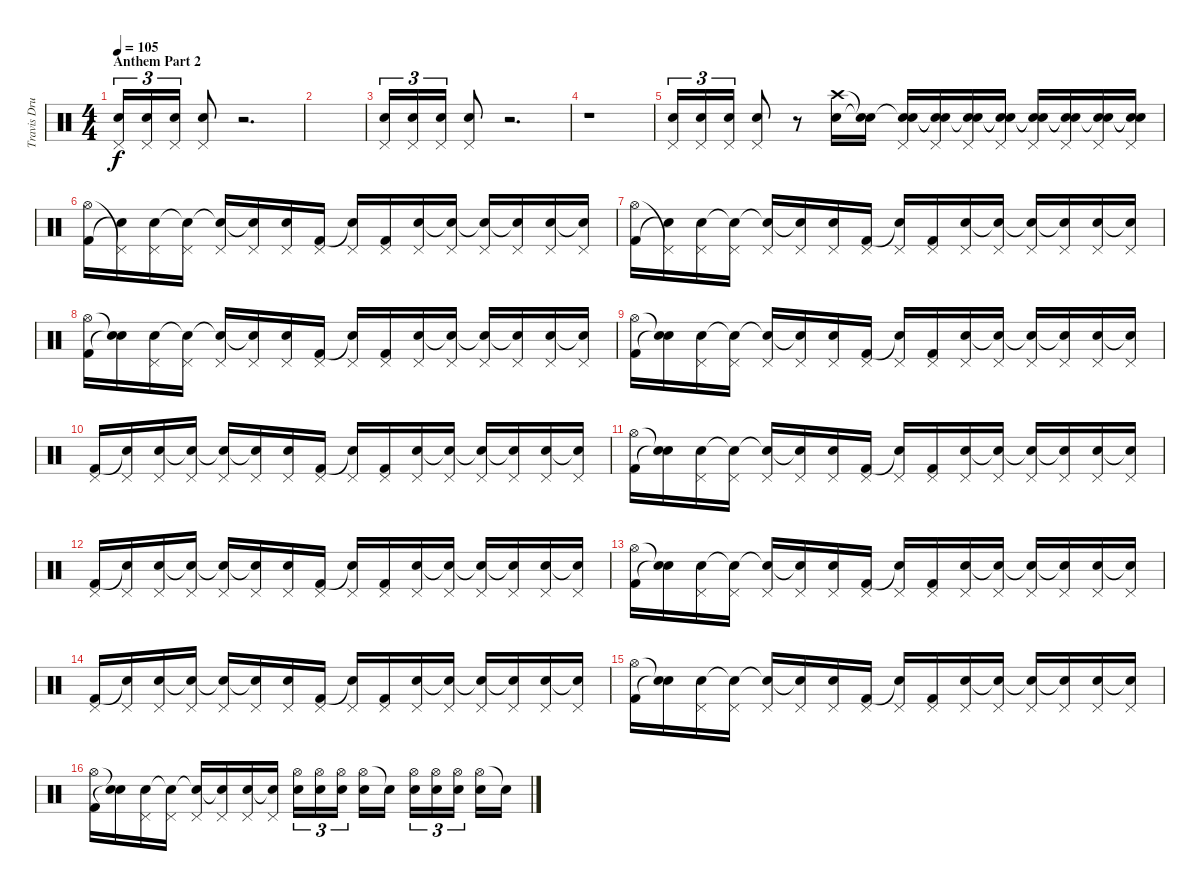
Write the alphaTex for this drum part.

\track ("Travis Drums" "Travis Dru") {instrument percussion}
\staff {score}
\articulation defaults
\ts (4 4)
\section ("" "Anthem Part 2")
\tempo 105
\clef neutral
\ks c
("Pedal Hi-Hat (hit)" "Electric Snare (hit)").16{tu (3 2) dy f} ("Pedal Hi-Hat (hit)" "Electric Snare (hit)").16{tu (3 2)} ("Pedal Hi-Hat (hit)" "Electric Snare (hit)").16{tu (3 2)} ("Pedal Hi-Hat (hit)" "Electric Snare (hit)").8 r.2{d} |
|
("Pedal Hi-Hat (hit)" "Electric Snare (hit)").16{tu (3 2)} ("Pedal Hi-Hat (hit)" "Electric Snare (hit)").16{tu (3 2)} ("Pedal Hi-Hat (hit)" "Electric Snare (hit)").16{tu (3 2)} ("Pedal Hi-Hat (hit)" "Electric Snare (hit)").8 r.2{d} |
r.1 |
("Pedal Hi-Hat (hit)" "Electric Snare (hit)").16{tu (3 2)} ("Pedal Hi-Hat (hit)" "Electric Snare (hit)").16{tu (3 2)} ("Pedal Hi-Hat (hit)" "Electric Snare (hit)").16{tu (3 2)} ("Pedal Hi-Hat (hit)" "Electric Snare (hit)").8 r.8 ("Crash high (hit)" "Electric Snare (hit)").16 ("Snare (hit)"{t} "Snare (hit)"{t}).16 ("Snare (hit)"{t} "Pedal Hi-Hat (hit)" "Snare (hit)").16 ("Snare (hit)"{t} "Pedal Hi-Hat (hit)" "Snare (hit)"{t}).16 ("Snare (hit)"{t} "Pedal Hi-Hat (hit)" "Electric Snare (hit)").16 ("Snare (hit)"{t} "Pedal Hi-Hat (hit)" "Snare (hit)"{t}).16 ("Snare (hit)"{t} "Pedal Hi-Hat (hit)" "Snare (hit)"{t}).16 ("Snare (hit)"{t} "Pedal Hi-Hat (hit)" "Snare (hit)"{t}).16 ("Snare (hit)"{t} "Pedal Hi-Hat (hit)" "Electric Snare (hit)").16 ("Snare (hit)"{t} "Pedal Hi-Hat (hit)" "Snare (hit)"{t}).16 |
("Hi-Hat (open)" "Kick (hit) 2").16 ("Pedal Hi-Hat (hit)"{t} "Snare (hit)"{t}).16 ("Pedal Hi-Hat (hit)" "Electric Snare (hit)").16 ("Pedal Hi-Hat (hit)" "Snare (hit)"{t}).16 ("Pedal Hi-Hat (hit)" "Snare (hit)"{t}).16 ("Pedal Hi-Hat (hit)" "Snare (hit)"{t}).16 ("Pedal Hi-Hat (hit)" "Electric Snare (hit)").16 ("Pedal Hi-Hat (hit)" "Kick (hit) 2").16 ("Pedal Hi-Hat (hit)" "Snare (hit)"{t}).16 ("Pedal Hi-Hat (hit)" "Kick (hit) 2").16 ("Pedal Hi-Hat (hit)" "Electric Snare (hit)").16 ("Pedal Hi-Hat (hit)" "Snare (hit)"{t}).16 ("Pedal Hi-Hat (hit)" "Snare (hit)"{t}).16 ("Pedal Hi-Hat (hit)" "Snare (hit)"{t}).16 ("Pedal Hi-Hat (hit)" "Electric Snare (hit)").16 ("Pedal Hi-Hat (hit)" "Snare (hit)"{t}).16 |
("Hi-Hat (open)" "Kick (hit) 2").16 ("Pedal Hi-Hat (hit)"{t} "Snare (hit)"{t}).16 ("Pedal Hi-Hat (hit)" "Electric Snare (hit)").16 ("Pedal Hi-Hat (hit)" "Snare (hit)"{t}).16 ("Pedal Hi-Hat (hit)" "Snare (hit)"{t}).16 ("Pedal Hi-Hat (hit)" "Snare (hit)"{t}).16 ("Pedal Hi-Hat (hit)" "Electric Snare (hit)").16 ("Pedal Hi-Hat (hit)" "Kick (hit) 2").16 ("Pedal Hi-Hat (hit)" "Snare (hit)"{t}).16 ("Pedal Hi-Hat (hit)" "Kick (hit) 2").16 ("Pedal Hi-Hat (hit)" "Electric Snare (hit)").16 ("Pedal Hi-Hat (hit)" "Snare (hit)"{t}).16 ("Pedal Hi-Hat (hit)" "Snare (hit)"{t}).16 ("Pedal Hi-Hat (hit)" "Snare (hit)"{t}).16 ("Pedal Hi-Hat (hit)" "Electric Snare (hit)").16 ("Pedal Hi-Hat (hit)" "Snare (hit)"{t}).16 |
("Hi-Hat (open)" "Kick (hit) 2").16 ("Snare (hit)"{t} "Snare (hit)"{t}).16 ("Pedal Hi-Hat (hit)" "Electric Snare (hit)").16 ("Pedal Hi-Hat (hit)" "Snare (hit)"{t}).16 ("Pedal Hi-Hat (hit)" "Snare (hit)"{t}).16 ("Pedal Hi-Hat (hit)" "Electric Snare (hit)"{t}).16 ("Pedal Hi-Hat (hit)" "Electric Snare (hit)").16 ("Pedal Hi-Hat (hit)" "Kick (hit) 2").16 ("Pedal Hi-Hat (hit)" "Snare (hit)"{t}).16 ("Pedal Hi-Hat (hit)" "Kick (hit) 2").16 ("Pedal Hi-Hat (hit)" "Electric Snare (hit)").16 ("Pedal Hi-Hat (hit)" "Snare (hit)"{t}).16 ("Pedal Hi-Hat (hit)" "Snare (hit)"{t}).16 ("Pedal Hi-Hat (hit)" "Snare (hit)"{t}).16 ("Pedal Hi-Hat (hit)" "Electric Snare (hit)").16 ("Pedal Hi-Hat (hit)" "Snare (hit)"{t}).16 |
("Hi-Hat (open)" "Kick (hit) 2").16 ("Snare (hit)"{t} "Snare (hit)"{t}).16 ("Pedal Hi-Hat (hit)" "Electric Snare (hit)").16 ("Pedal Hi-Hat (hit)" "Snare (hit)"{t}).16 ("Pedal Hi-Hat (hit)" "Snare (hit)"{t}).16 ("Pedal Hi-Hat (hit)" "Snare (hit)"{t}).16 ("Pedal Hi-Hat (hit)" "Electric Snare (hit)").16 ("Pedal Hi-Hat (hit)" "Kick (hit) 2").16 ("Pedal Hi-Hat (hit)" "Snare (hit)"{t}).16 ("Pedal Hi-Hat (hit)" "Kick (hit) 2").16 ("Pedal Hi-Hat (hit)" "Electric Snare (hit)").16 ("Pedal Hi-Hat (hit)" "Snare (hit)"{t}).16 ("Pedal Hi-Hat (hit)" "Snare (hit)"{t}).16 ("Pedal Hi-Hat (hit)" "Snare (hit)"{t}).16 ("Pedal Hi-Hat (hit)" "Electric Snare (hit)").16 ("Pedal Hi-Hat (hit)" "Snare (hit)"{t}).16 |
("Pedal Hi-Hat (hit)" "Kick (hit) 2").16 ("Pedal Hi-Hat (hit)" "Snare (hit)"{t}).16 ("Pedal Hi-Hat (hit)" "Electric Snare (hit)").16 ("Pedal Hi-Hat (hit)" "Snare (hit)"{t}).16 ("Pedal Hi-Hat (hit)" "Snare (hit)"{t}).16 ("Pedal Hi-Hat (hit)" "Snare (hit)"{t}).16 ("Pedal Hi-Hat (hit)" "Electric Snare (hit)").16 ("Pedal Hi-Hat (hit)" "Kick (hit) 2").16 ("Pedal Hi-Hat (hit)" "Snare (hit)"{t}).16 ("Pedal Hi-Hat (hit)" "Kick (hit) 2").16 ("Pedal Hi-Hat (hit)" "Electric Snare (hit)").16 ("Pedal Hi-Hat (hit)" "Snare (hit)"{t}).16 ("Pedal Hi-Hat (hit)" "Snare (hit)"{t}).16 ("Pedal Hi-Hat (hit)" "Snare (hit)"{t}).16 ("Pedal Hi-Hat (hit)" "Electric Snare (hit)").16 ("Pedal Hi-Hat (hit)" "Snare (hit)"{t}).16 |
("Hi-Hat (open)" "Kick (hit) 2").16 ("Snare (hit)"{t} "Snare (hit)"{t}).16 ("Pedal Hi-Hat (hit)" "Electric Snare (hit)").16 ("Pedal Hi-Hat (hit)" "Snare (hit)"{t}).16 ("Pedal Hi-Hat (hit)" "Snare (hit)"{t}).16 ("Pedal Hi-Hat (hit)" "Snare (hit)"{t}).16 ("Pedal Hi-Hat (hit)" "Electric Snare (hit)").16 ("Pedal Hi-Hat (hit)" "Kick (hit) 2").16 ("Pedal Hi-Hat (hit)" "Snare (hit)"{t}).16 ("Pedal Hi-Hat (hit)" "Kick (hit) 2").16 ("Pedal Hi-Hat (hit)" "Electric Snare (hit)").16 ("Pedal Hi-Hat (hit)" "Snare (hit)"{t}).16 ("Pedal Hi-Hat (hit)" "Snare (hit)"{t}).16 ("Pedal Hi-Hat (hit)" "Snare (hit)"{t}).16 ("Pedal Hi-Hat (hit)" "Electric Snare (hit)").16 ("Pedal Hi-Hat (hit)" "Snare (hit)"{t}).16 |
("Pedal Hi-Hat (hit)" "Kick (hit) 2").16 ("Pedal Hi-Hat (hit)" "Snare (hit)"{t}).16 ("Pedal Hi-Hat (hit)" "Electric Snare (hit)").16 ("Pedal Hi-Hat (hit)" "Snare (hit)"{t}).16 ("Pedal Hi-Hat (hit)" "Snare (hit)"{t}).16 ("Pedal Hi-Hat (hit)" "Snare (hit)"{t}).16 ("Pedal Hi-Hat (hit)" "Electric Snare (hit)").16 ("Pedal Hi-Hat (hit)" "Kick (hit) 2").16 ("Pedal Hi-Hat (hit)" "Snare (hit)"{t}).16 ("Pedal Hi-Hat (hit)" "Kick (hit) 2").16 ("Pedal Hi-Hat (hit)" "Electric Snare (hit)").16 ("Pedal Hi-Hat (hit)" "Snare (hit)"{t}).16 ("Pedal Hi-Hat (hit)" "Snare (hit)"{t}).16 ("Pedal Hi-Hat (hit)" "Snare (hit)"{t}).16 ("Pedal Hi-Hat (hit)" "Electric Snare (hit)").16 ("Pedal Hi-Hat (hit)" "Snare (hit)"{t}).16 |
("Hi-Hat (open)" "Kick (hit) 2").16 ("Snare (hit)"{t} "Snare (hit)"{t}).16 ("Pedal Hi-Hat (hit)" "Electric Snare (hit)").16 ("Pedal Hi-Hat (hit)" "Snare (hit)"{t}).16 ("Pedal Hi-Hat (hit)" "Snare (hit)"{t}).16 ("Pedal Hi-Hat (hit)" "Snare (hit)"{t}).16 ("Pedal Hi-Hat (hit)" "Electric Snare (hit)").16 ("Pedal Hi-Hat (hit)" "Kick (hit) 2").16 ("Pedal Hi-Hat (hit)" "Snare (hit)"{t}).16 ("Pedal Hi-Hat (hit)" "Kick (hit) 2").16 ("Pedal Hi-Hat (hit)" "Electric Snare (hit)").16 ("Pedal Hi-Hat (hit)" "Snare (hit)"{t}).16 ("Pedal Hi-Hat (hit)" "Snare (hit)"{t}).16 ("Pedal Hi-Hat (hit)" "Snare (hit)"{t}).16 ("Pedal Hi-Hat (hit)" "Electric Snare (hit)").16 ("Pedal Hi-Hat (hit)" "Snare (hit)"{t}).16 |
("Pedal Hi-Hat (hit)" "Kick (hit) 2").16 ("Pedal Hi-Hat (hit)" "Snare (hit)"{t}).16 ("Pedal Hi-Hat (hit)" "Electric Snare (hit)").16 ("Pedal Hi-Hat (hit)" "Snare (hit)"{t}).16 ("Pedal Hi-Hat (hit)" "Snare (hit)"{t}).16 ("Pedal Hi-Hat (hit)" "Snare (hit)"{t}).16 ("Pedal Hi-Hat (hit)" "Electric Snare (hit)").16 ("Pedal Hi-Hat (hit)" "Kick (hit) 2").16 ("Pedal Hi-Hat (hit)" "Snare (hit)"{t}).16 ("Pedal Hi-Hat (hit)" "Kick (hit) 2").16 ("Pedal Hi-Hat (hit)" "Electric Snare (hit)").16 ("Pedal Hi-Hat (hit)" "Snare (hit)"{t}).16 ("Pedal Hi-Hat (hit)" "Snare (hit)"{t}).16 ("Pedal Hi-Hat (hit)" "Snare (hit)"{t}).16 ("Pedal Hi-Hat (hit)" "Electric Snare (hit)").16 ("Pedal Hi-Hat (hit)" "Snare (hit)"{t}).16 |
("Hi-Hat (open)" "Kick (hit) 2").16 ("Snare (hit)"{t} "Snare (hit)"{t}).16 ("Pedal Hi-Hat (hit)" "Electric Snare (hit)").16 ("Pedal Hi-Hat (hit)" "Snare (hit)"{t}).16 ("Pedal Hi-Hat (hit)" "Snare (hit)"{t}).16 ("Pedal Hi-Hat (hit)" "Electric Snare (hit)"{t}).16 ("Pedal Hi-Hat (hit)" "Electric Snare (hit)").16 ("Pedal Hi-Hat (hit)" "Kick (hit) 2").16 ("Pedal Hi-Hat (hit)" "Snare (hit)"{t}).16 ("Pedal Hi-Hat (hit)" "Kick (hit) 2").16 ("Pedal Hi-Hat (hit)" "Electric Snare (hit)").16 ("Pedal Hi-Hat (hit)" "Snare (hit)"{t}).16 ("Pedal Hi-Hat (hit)" "Snare (hit)"{t}).16 ("Pedal Hi-Hat (hit)" "Electric Snare (hit)"{t}).16 ("Pedal Hi-Hat (hit)" "Electric Snare (hit)").16 ("Pedal Hi-Hat (hit)" "Snare (hit)"{t}).16 |
("Hi-Hat (open)" "Kick (hit) 2").16 ("Snare (hit)"{t} "Snare (hit)"{t}).16 ("Pedal Hi-Hat (hit)" "Electric Snare (hit)").16 ("Pedal Hi-Hat (hit)" "Snare (hit)"{t}).16 ("Pedal Hi-Hat (hit)" "Snare (hit)"{t}).16 ("Pedal Hi-Hat (hit)" "Snare (hit)"{t}).16 ("Pedal Hi-Hat (hit)" "Electric Snare (hit)").16 ("Pedal Hi-Hat (hit)" "Snare (hit)"{t}).16 ("Hi-Hat (open)" "Electric Snare (hit)").16{tu (3 2)} ("Hi-Hat (open)" "Electric Snare (hit)").16{tu (3 2)} ("Hi-Hat (open)" "Electric Snare (hit)").16{tu (3 2)} ("Hi-Hat (open)" "Electric Snare (hit)").16 "Snare (hit)"{t}.16 ("Hi-Hat (open)" "Electric Snare (hit)").16{tu (3 2)} ("Hi-Hat (open)" "Electric Snare (hit)").16{tu (3 2)} ("Hi-Hat (open)" "Electric Snare (hit)").16{tu (3 2)} ("Hi-Hat (open)" "Electric Snare (hit)").16 "Snare (hit)"{t}.16
